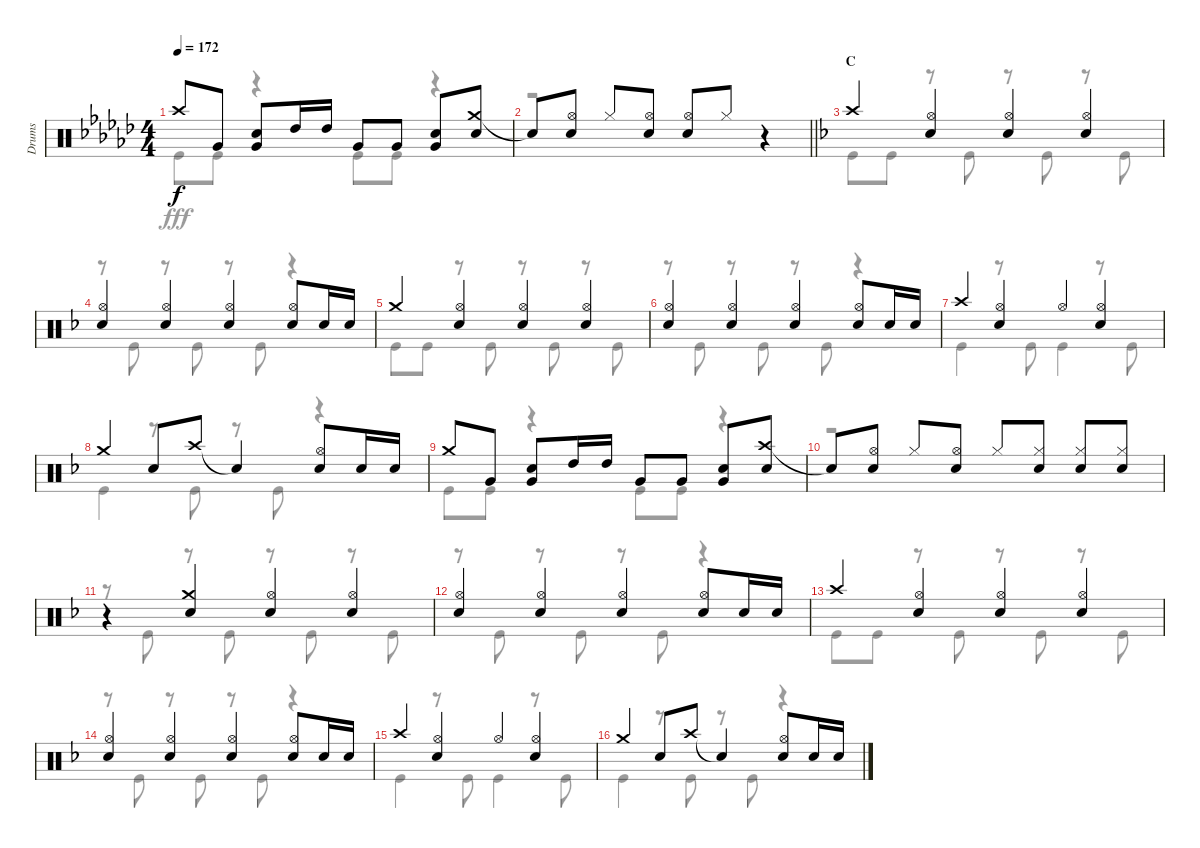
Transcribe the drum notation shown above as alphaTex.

\track ("Drums" "Drums") {instrument percussion}
\staff {score}
\articulation defaults
\voice
\ts (4 4)
\tempo 172
\clef neutral
\ks gb "Crash high (hit)".8{dy f} "Very Low Tom (hit)".8
("Snare (hit) 2" "Very Low Tom (hit)").8 "High Tom (hit)".16 "High Tom (hit)".16 "Very Low Tom (hit)".8 "Very Low Tom (hit)".8 ("Snare (hit) 2" "Very Low Tom (hit)").8 ("Crash medium (hit)" "Snare (hit) 2").8 |
\barLineRight lightlight "Snare (hit)"{t}.8
("Hi-Hat (open)" "Snare (hit) 2").8 "Hi-Hat (closed)".8 ("Hi-Hat (open)" "Snare (hit) 2").8 ("Hi-Hat (open)" "Snare (hit) 2").8 "Hi-Hat (closed)".8 r.4 |
\section ("" "C")
\ks f "Crash high (hit)".4
("Hi-Hat (open)" "Snare (hit) 2").4 ("Hi-Hat (open)" "Snare (hit) 2").4 ("Hi-Hat (open)" "Snare (hit) 2").4 |
("Hi-Hat (open)" "Snare (hit) 2").4 ("Hi-Hat (open)" "Snare (hit) 2").4 ("Hi-Hat (open)" "Snare (hit) 2").4 ("Hi-Hat (open)" "Snare (hit) 2").8 "Snare (hit) 2".16 "Snare (hit) 2".16 |
"Crash medium (hit)".4 ("Hi-Hat (open)" "Snare (hit) 2").4 ("Hi-Hat (open)" "Snare (hit) 2").4 ("Hi-Hat (open)" "Snare (hit) 2").4 |
("Hi-Hat (open)" "Snare (hit) 2").4 ("Hi-Hat (open)" "Snare (hit) 2").4 ("Hi-Hat (open)" "Snare (hit) 2").4 ("Hi-Hat (open)" "Snare (hit) 2").8 "Snare (hit) 2".16 "Snare (hit) 2".16 |
"Crash high (hit)".4 ("Hi-Hat (open)" "Snare (hit) 2").4 "Hi-Hat (open)".4 ("Hi-Hat (open)" "Snare (hit) 2").4 |
"Crash medium (hit)".4 "Snare (hit) 2".8 "Crash high (hit)".8 "Snare (hit)"{t}.4 ("Hi-Hat (open)" "Snare (hit) 2").8 "Snare (hit) 2".16 "Snare (hit) 2".16 |
"Crash medium (hit)".8 "Very Low Tom (hit)".8 ("Snare (hit) 2" "Very Low Tom (hit)").8 "High Tom (hit)".16 "High Tom (hit)".16 "Very Low Tom (hit)".8 "Very Low Tom (hit)".8 ("Snare (hit) 2" "Very Low Tom (hit)").8 ("Crash high (hit)" "Snare (hit) 2").8 |
"Snare (hit)"{t}.8 ("Hi-Hat (open)" "Snare (hit) 2").8 "Hi-Hat (closed)".8 ("Hi-Hat (open)" "Snare (hit) 2").8 "Hi-Hat (closed)".8 ("Hi-Hat (closed)" "Snare (hit) 2").8 ("Hi-Hat (closed)" "Snare (hit) 2").8 ("Hi-Hat (closed)" "Snare (hit) 2").8 |
r.4 ("Crash medium (hit)" "Snare (hit) 2").4 ("Hi-Hat (open)" "Snare (hit) 2").4 ("Hi-Hat (open)" "Snare (hit) 2").4 |
("Hi-Hat (open)" "Snare (hit) 2").4 ("Hi-Hat (open)" "Snare (hit) 2").4 ("Hi-Hat (open)" "Snare (hit) 2").4 ("Hi-Hat (open)" "Snare (hit) 2").8 "Snare (hit) 2".16 "Snare (hit) 2".16 |
"Crash high (hit)".4 ("Hi-Hat (open)" "Snare (hit) 2").4 ("Hi-Hat (open)" "Snare (hit) 2").4 ("Hi-Hat (open)" "Snare (hit) 2").4 |
("Hi-Hat (open)" "Snare (hit) 2").4 ("Hi-Hat (open)" "Snare (hit) 2").4 ("Hi-Hat (open)" "Snare (hit) 2").4 ("Hi-Hat (open)" "Snare (hit) 2").8 "Snare (hit) 2".16 "Snare (hit) 2".16 |
"Crash high (hit)".4 ("Hi-Hat (open)" "Snare (hit) 2").4 "Hi-Hat (open)".4 ("Hi-Hat (open)" "Snare (hit) 2").4 |
"Crash medium (hit)".4 "Snare (hit) 2".8 "Crash high (hit)".8 "Snare (hit)"{t}.4 ("Hi-Hat (open)" "Snare (hit) 2").8 "Snare (hit) 2".16 "Snare (hit) 2".16
\voice
\clef neutral
\ottava regular
\simile none
\ks gb "Kick (hit)".8{dy fff} "Kick (hit)".8
r.4 "Kick (hit)".8 "Kick (hit)".8 r.4 |
\barLineRight lightlight
r.1 |
\ks f "Kick (hit)".8 "Kick (hit)".8
r.8 "Kick (hit)".8 r.8 "Kick (hit)".8 r.8 "Kick (hit)".8 |
r.8 "Kick (hit)".8 r.8 "Kick (hit)".8 r.8 "Kick (hit)".8 r.4 |
"Kick (hit)".8 "Kick (hit)".8 r.8 "Kick (hit)".8 r.8 "Kick (hit)".8 r.8 "Kick (hit)".8 |
r.8 "Kick (hit)".8 r.8 "Kick (hit)".8 r.8 "Kick (hit)".8 r.4 |
"Kick (hit)".4 r.8 "Kick (hit)".8 "Kick (hit)".4 r.8 "Kick (hit)".8 |
"Kick (hit)".4 r.8 "Kick (hit)".8 r.8 "Kick (hit)".8 r.4 |
"Kick (hit)".8 "Kick (hit)".8 r.4 "Kick (hit)".8 "Kick (hit)".8 r.4 |
r.1 |
r.8 "Kick (hit)".8 r.8 "Kick (hit)".8 r.8 "Kick (hit)".8 r.8 "Kick (hit)".8 |
r.8 "Kick (hit)".8 r.8 "Kick (hit)".8 r.8 "Kick (hit)".8 r.4 |
"Kick (hit)".8 "Kick (hit)".8 r.8 "Kick (hit)".8 r.8 "Kick (hit)".8 r.8 "Kick (hit)".8 |
r.8 "Kick (hit)".8 r.8 "Kick (hit)".8 r.8 "Kick (hit)".8 r.4 |
"Kick (hit)".4 r.8 "Kick (hit)".8 "Kick (hit)".4 r.8 "Kick (hit)".8 |
"Kick (hit)".4 r.8 "Kick (hit)".8 r.8 "Kick (hit)".8 r.4
